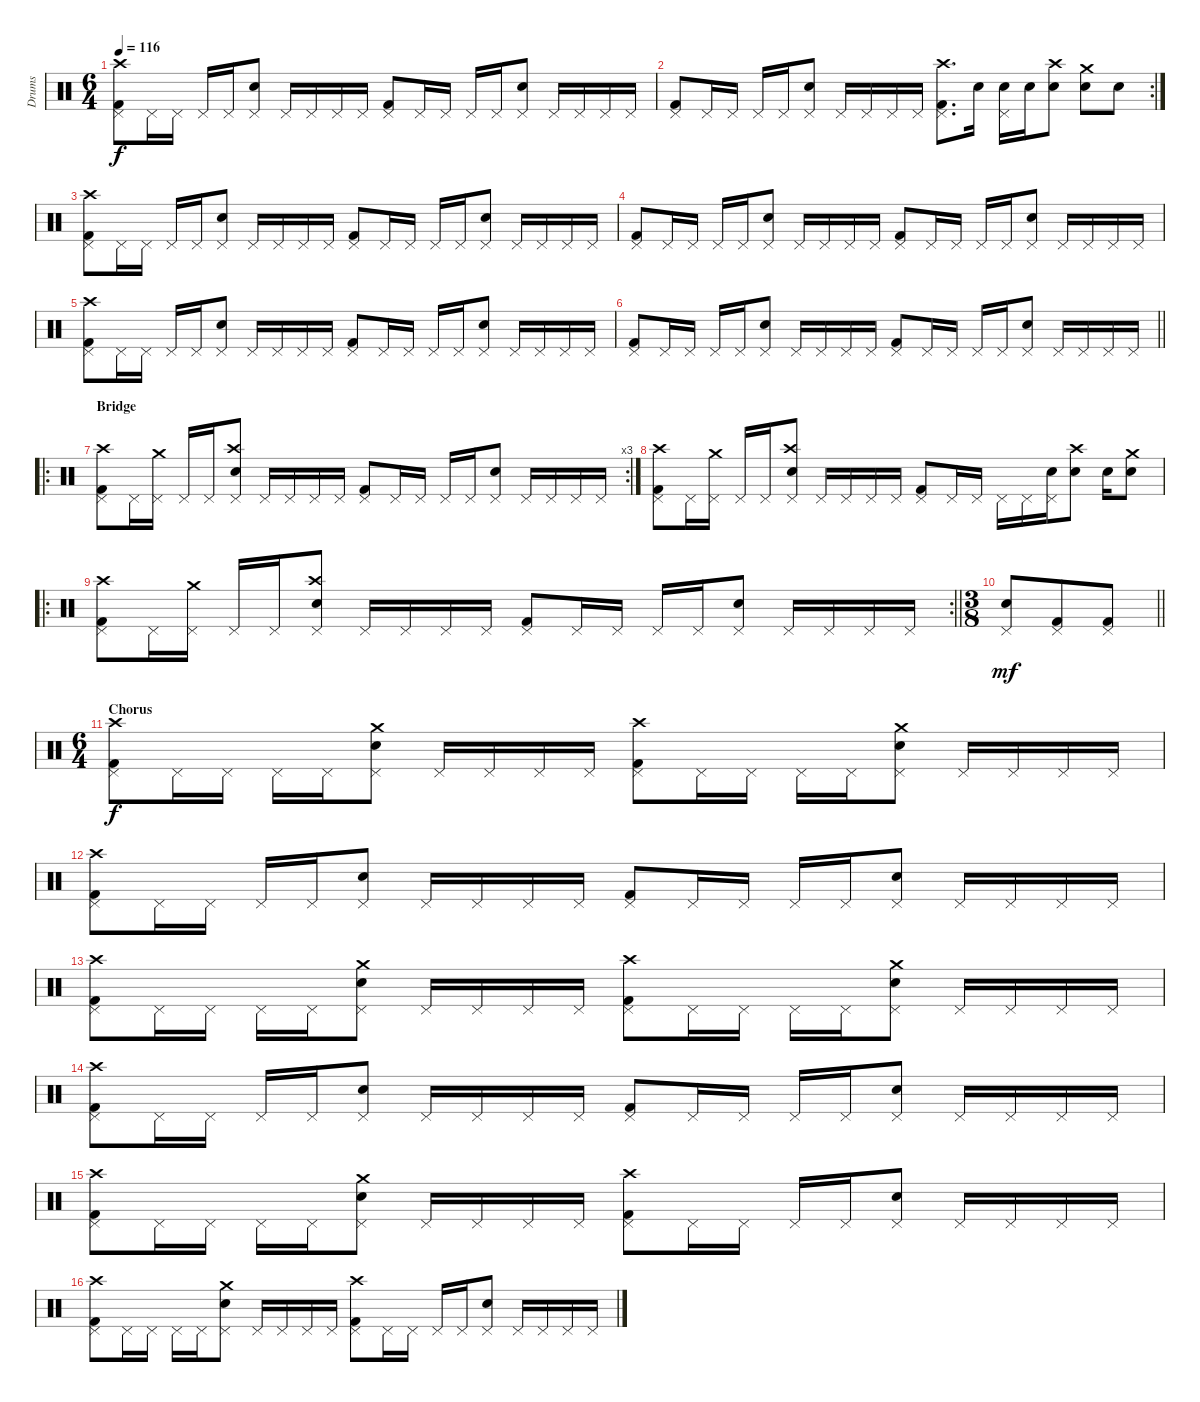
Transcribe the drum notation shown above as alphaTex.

\track ("Drums" "Drums") {instrument percussion}
\staff {score}
\articulation defaults
\ts (6 4)
\tempo 116
\clef neutral
\ks c
("Kick (hit) 2" "Pedal Hi-Hat (hit)" "Crash high (hit)").8{dy f} "Pedal Hi-Hat (hit)".16 "Pedal Hi-Hat (hit)".16 "Pedal Hi-Hat (hit)".16 "Pedal Hi-Hat (hit)".16 ("Snare (hit) 2" "Pedal Hi-Hat (hit)").8 "Pedal Hi-Hat (hit)".16 "Pedal Hi-Hat (hit)".16 "Pedal Hi-Hat (hit)".16 "Pedal Hi-Hat (hit)".16 ("Kick (hit) 2" "Pedal Hi-Hat (hit)").8 "Pedal Hi-Hat (hit)".16 "Pedal Hi-Hat (hit)".16 "Pedal Hi-Hat (hit)".16 "Pedal Hi-Hat (hit)".16 ("Snare (hit) 2" "Pedal Hi-Hat (hit)").8 "Pedal Hi-Hat (hit)".16 "Pedal Hi-Hat (hit)".16 "Pedal Hi-Hat (hit)".16 "Pedal Hi-Hat (hit)".16 |
\rc 2
("Kick (hit) 2" "Pedal Hi-Hat (hit)").8 "Pedal Hi-Hat (hit)".16 "Pedal Hi-Hat (hit)".16 "Pedal Hi-Hat (hit)".16 "Pedal Hi-Hat (hit)".16 ("Snare (hit) 2" "Pedal Hi-Hat (hit)").8 "Pedal Hi-Hat (hit)".16 "Pedal Hi-Hat (hit)".16 "Pedal Hi-Hat (hit)".16 "Pedal Hi-Hat (hit)".16 ("Kick (hit) 2" "Pedal Hi-Hat (hit)" "Crash high (hit)").8{d} "Snare (hit) 2".16 ("Snare (hit) 2" "Pedal Hi-Hat (hit)").16 "Snare (hit) 2".16 ("Snare (hit) 2" "Crash high (hit)").8 ("Snare (hit) 2" "Crash medium (hit)").8 "Snare (hit) 2".8 |
("Kick (hit) 2" "Pedal Hi-Hat (hit)" "Crash high (hit)").8 "Pedal Hi-Hat (hit)".16 "Pedal Hi-Hat (hit)".16 "Pedal Hi-Hat (hit)".16 "Pedal Hi-Hat (hit)".16 ("Snare (hit) 2" "Pedal Hi-Hat (hit)").8 "Pedal Hi-Hat (hit)".16 "Pedal Hi-Hat (hit)".16 "Pedal Hi-Hat (hit)".16 "Pedal Hi-Hat (hit)".16 ("Kick (hit) 2" "Pedal Hi-Hat (hit)").8 "Pedal Hi-Hat (hit)".16 "Pedal Hi-Hat (hit)".16 "Pedal Hi-Hat (hit)".16 "Pedal Hi-Hat (hit)".16 ("Snare (hit) 2" "Pedal Hi-Hat (hit)").8 "Pedal Hi-Hat (hit)".16 "Pedal Hi-Hat (hit)".16 "Pedal Hi-Hat (hit)".16 "Pedal Hi-Hat (hit)".16 |
("Kick (hit) 2" "Pedal Hi-Hat (hit)").8 "Pedal Hi-Hat (hit)".16 "Pedal Hi-Hat (hit)".16 "Pedal Hi-Hat (hit)".16 "Pedal Hi-Hat (hit)".16 ("Snare (hit) 2" "Pedal Hi-Hat (hit)").8 "Pedal Hi-Hat (hit)".16 "Pedal Hi-Hat (hit)".16 "Pedal Hi-Hat (hit)".16 "Pedal Hi-Hat (hit)".16 ("Kick (hit) 2" "Pedal Hi-Hat (hit)").8 "Pedal Hi-Hat (hit)".16 "Pedal Hi-Hat (hit)".16 "Pedal Hi-Hat (hit)".16 "Pedal Hi-Hat (hit)".16 ("Snare (hit) 2" "Pedal Hi-Hat (hit)").8 "Pedal Hi-Hat (hit)".16 "Pedal Hi-Hat (hit)".16 "Pedal Hi-Hat (hit)".16 "Pedal Hi-Hat (hit)".16 |
("Kick (hit) 2" "Pedal Hi-Hat (hit)" "Crash high (hit)").8 "Pedal Hi-Hat (hit)".16 "Pedal Hi-Hat (hit)".16 "Pedal Hi-Hat (hit)".16 "Pedal Hi-Hat (hit)".16 ("Snare (hit) 2" "Pedal Hi-Hat (hit)").8 "Pedal Hi-Hat (hit)".16 "Pedal Hi-Hat (hit)".16 "Pedal Hi-Hat (hit)".16 "Pedal Hi-Hat (hit)".16 ("Kick (hit) 2" "Pedal Hi-Hat (hit)").8 "Pedal Hi-Hat (hit)".16 "Pedal Hi-Hat (hit)".16 "Pedal Hi-Hat (hit)".16 "Pedal Hi-Hat (hit)".16 ("Snare (hit) 2" "Pedal Hi-Hat (hit)").8 "Pedal Hi-Hat (hit)".16 "Pedal Hi-Hat (hit)".16 "Pedal Hi-Hat (hit)".16 "Pedal Hi-Hat (hit)".16 |
\barLineRight lightlight
("Kick (hit) 2" "Pedal Hi-Hat (hit)").8 "Pedal Hi-Hat (hit)".16 "Pedal Hi-Hat (hit)".16 "Pedal Hi-Hat (hit)".16 "Pedal Hi-Hat (hit)".16 ("Snare (hit) 2" "Pedal Hi-Hat (hit)").8 "Pedal Hi-Hat (hit)".16 "Pedal Hi-Hat (hit)".16 "Pedal Hi-Hat (hit)".16 "Pedal Hi-Hat (hit)".16 ("Kick (hit) 2" "Pedal Hi-Hat (hit)").8 "Pedal Hi-Hat (hit)".16 "Pedal Hi-Hat (hit)".16 "Pedal Hi-Hat (hit)".16 "Pedal Hi-Hat (hit)".16 ("Snare (hit) 2" "Pedal Hi-Hat (hit)").8 "Pedal Hi-Hat (hit)".16 "Pedal Hi-Hat (hit)".16 "Pedal Hi-Hat (hit)".16 "Pedal Hi-Hat (hit)".16 |
\ro
\rc 3
\section ("" "Bridge")
("Kick (hit) 2" "Pedal Hi-Hat (hit)" "Crash high (hit)").8 "Pedal Hi-Hat (hit)".16 ("Pedal Hi-Hat (hit)" "Crash medium (hit)").16 "Pedal Hi-Hat (hit)".16 "Pedal Hi-Hat (hit)".16 ("Snare (hit) 2" "Pedal Hi-Hat (hit)" "Crash high (hit)").8 "Pedal Hi-Hat (hit)".16 "Pedal Hi-Hat (hit)".16 "Pedal Hi-Hat (hit)".16 "Pedal Hi-Hat (hit)".16 ("Kick (hit) 2" "Pedal Hi-Hat (hit)").8 "Pedal Hi-Hat (hit)".16 "Pedal Hi-Hat (hit)".16 "Pedal Hi-Hat (hit)".16 "Pedal Hi-Hat (hit)".16 ("Snare (hit) 2" "Pedal Hi-Hat (hit)").8 "Pedal Hi-Hat (hit)".16 "Pedal Hi-Hat (hit)".16 "Pedal Hi-Hat (hit)".16 "Pedal Hi-Hat (hit)".16 |
("Kick (hit) 2" "Pedal Hi-Hat (hit)" "Crash high (hit)").8 "Pedal Hi-Hat (hit)".16 ("Pedal Hi-Hat (hit)" "Crash medium (hit)").16 "Pedal Hi-Hat (hit)".16 "Pedal Hi-Hat (hit)".16 ("Snare (hit) 2" "Pedal Hi-Hat (hit)" "Crash high (hit)").8 "Pedal Hi-Hat (hit)".16 "Pedal Hi-Hat (hit)".16 "Pedal Hi-Hat (hit)".16 "Pedal Hi-Hat (hit)".16 ("Kick (hit) 2" "Pedal Hi-Hat (hit)").8 "Pedal Hi-Hat (hit)".16 "Pedal Hi-Hat (hit)".16 "Pedal Hi-Hat (hit)".16 "Pedal Hi-Hat (hit)".16 ("Snare (hit) 2" "Pedal Hi-Hat (hit)").16 ("Snare (hit) 2" "Crash high (hit)").8 "Snare (hit) 2".16 ("Snare (hit) 2" "Crash medium (hit)").8 |
\ro
\rc 2
\barLineRight lightlight
("Kick (hit) 2" "Pedal Hi-Hat (hit)" "Crash high (hit)").8 "Pedal Hi-Hat (hit)".16 ("Pedal Hi-Hat (hit)" "Crash medium (hit)").16 "Pedal Hi-Hat (hit)".16 "Pedal Hi-Hat (hit)".16 ("Snare (hit) 2" "Pedal Hi-Hat (hit)" "Crash high (hit)").8 "Pedal Hi-Hat (hit)".16 "Pedal Hi-Hat (hit)".16 "Pedal Hi-Hat (hit)".16 "Pedal Hi-Hat (hit)".16 ("Kick (hit) 2" "Pedal Hi-Hat (hit)").8 "Pedal Hi-Hat (hit)".16 "Pedal Hi-Hat (hit)".16 "Pedal Hi-Hat (hit)".16 "Pedal Hi-Hat (hit)".16 ("Snare (hit) 2" "Pedal Hi-Hat (hit)").8 "Pedal Hi-Hat (hit)".16 "Pedal Hi-Hat (hit)".16 "Pedal Hi-Hat (hit)".16 "Pedal Hi-Hat (hit)".16 |
\ts (3 8)
\barLineRight lightlight
("Pedal Hi-Hat (hit)" "Snare (hit) 2").8{dy mf} ("Pedal Hi-Hat (hit)" "Kick (hit) 2").8 ("Pedal Hi-Hat (hit)" "Kick (hit) 2").8 |
\ts (6 4)
\section ("" "Chorus")
("Kick (hit) 2" "Pedal Hi-Hat (hit)" "Crash high (hit)").8{dy f} "Pedal Hi-Hat (hit)".16 "Pedal Hi-Hat (hit)".16 "Pedal Hi-Hat (hit)".16 "Pedal Hi-Hat (hit)".16 ("Snare (hit) 2" "Pedal Hi-Hat (hit)" "Crash medium (hit)").8 "Pedal Hi-Hat (hit)".16 "Pedal Hi-Hat (hit)".16 "Pedal Hi-Hat (hit)".16 "Pedal Hi-Hat (hit)".16 ("Kick (hit) 2" "Pedal Hi-Hat (hit)" "Crash high (hit)").8 "Pedal Hi-Hat (hit)".16 "Pedal Hi-Hat (hit)".16 "Pedal Hi-Hat (hit)".16 "Pedal Hi-Hat (hit)".16 ("Snare (hit) 2" "Pedal Hi-Hat (hit)" "Crash medium (hit)").8 "Pedal Hi-Hat (hit)".16 "Pedal Hi-Hat (hit)".16 "Pedal Hi-Hat (hit)".16 "Pedal Hi-Hat (hit)".16 |
("Kick (hit) 2" "Pedal Hi-Hat (hit)" "Crash high (hit)").8 "Pedal Hi-Hat (hit)".16 "Pedal Hi-Hat (hit)".16 "Pedal Hi-Hat (hit)".16 "Pedal Hi-Hat (hit)".16 ("Snare (hit) 2" "Pedal Hi-Hat (hit)").8 "Pedal Hi-Hat (hit)".16 "Pedal Hi-Hat (hit)".16 "Pedal Hi-Hat (hit)".16 "Pedal Hi-Hat (hit)".16 ("Kick (hit) 2" "Pedal Hi-Hat (hit)").8 "Pedal Hi-Hat (hit)".16 "Pedal Hi-Hat (hit)".16 "Pedal Hi-Hat (hit)".16 "Pedal Hi-Hat (hit)".16 ("Snare (hit) 2" "Pedal Hi-Hat (hit)").8 "Pedal Hi-Hat (hit)".16 "Pedal Hi-Hat (hit)".16 "Pedal Hi-Hat (hit)".16 "Pedal Hi-Hat (hit)".16 |
("Kick (hit) 2" "Pedal Hi-Hat (hit)" "Crash high (hit)").8 "Pedal Hi-Hat (hit)".16 "Pedal Hi-Hat (hit)".16 "Pedal Hi-Hat (hit)".16 "Pedal Hi-Hat (hit)".16 ("Snare (hit) 2" "Pedal Hi-Hat (hit)" "Crash medium (hit)").8 "Pedal Hi-Hat (hit)".16 "Pedal Hi-Hat (hit)".16 "Pedal Hi-Hat (hit)".16 "Pedal Hi-Hat (hit)".16 ("Kick (hit) 2" "Pedal Hi-Hat (hit)" "Crash high (hit)").8 "Pedal Hi-Hat (hit)".16 "Pedal Hi-Hat (hit)".16 "Pedal Hi-Hat (hit)".16 "Pedal Hi-Hat (hit)".16 ("Snare (hit) 2" "Pedal Hi-Hat (hit)" "Crash medium (hit)").8 "Pedal Hi-Hat (hit)".16 "Pedal Hi-Hat (hit)".16 "Pedal Hi-Hat (hit)".16 "Pedal Hi-Hat (hit)".16 |
("Kick (hit) 2" "Pedal Hi-Hat (hit)" "Crash high (hit)").8 "Pedal Hi-Hat (hit)".16 "Pedal Hi-Hat (hit)".16 "Pedal Hi-Hat (hit)".16 "Pedal Hi-Hat (hit)".16 ("Snare (hit) 2" "Pedal Hi-Hat (hit)").8 "Pedal Hi-Hat (hit)".16 "Pedal Hi-Hat (hit)".16 "Pedal Hi-Hat (hit)".16 "Pedal Hi-Hat (hit)".16 ("Kick (hit) 2" "Pedal Hi-Hat (hit)").8 "Pedal Hi-Hat (hit)".16 "Pedal Hi-Hat (hit)".16 "Pedal Hi-Hat (hit)".16 "Pedal Hi-Hat (hit)".16 ("Snare (hit) 2" "Pedal Hi-Hat (hit)").8 "Pedal Hi-Hat (hit)".16 "Pedal Hi-Hat (hit)".16 "Pedal Hi-Hat (hit)".16 "Pedal Hi-Hat (hit)".16 |
("Kick (hit) 2" "Pedal Hi-Hat (hit)" "Crash high (hit)").8 "Pedal Hi-Hat (hit)".16 "Pedal Hi-Hat (hit)".16 "Pedal Hi-Hat (hit)".16 "Pedal Hi-Hat (hit)".16 ("Snare (hit) 2" "Pedal Hi-Hat (hit)" "Crash medium (hit)").8 "Pedal Hi-Hat (hit)".16 "Pedal Hi-Hat (hit)".16 "Pedal Hi-Hat (hit)".16 "Pedal Hi-Hat (hit)".16 ("Kick (hit) 2" "Pedal Hi-Hat (hit)" "Crash high (hit)").8 "Pedal Hi-Hat (hit)".16 "Pedal Hi-Hat (hit)".16 "Pedal Hi-Hat (hit)".16 "Pedal Hi-Hat (hit)".16 ("Snare (hit) 2" "Pedal Hi-Hat (hit)").8 "Pedal Hi-Hat (hit)".16 "Pedal Hi-Hat (hit)".16 "Pedal Hi-Hat (hit)".16 "Pedal Hi-Hat (hit)".16 |
("Kick (hit) 2" "Pedal Hi-Hat (hit)" "Crash high (hit)").8 "Pedal Hi-Hat (hit)".16 "Pedal Hi-Hat (hit)".16 "Pedal Hi-Hat (hit)".16 "Pedal Hi-Hat (hit)".16 ("Snare (hit) 2" "Pedal Hi-Hat (hit)" "Crash medium (hit)").8 "Pedal Hi-Hat (hit)".16 "Pedal Hi-Hat (hit)".16 "Pedal Hi-Hat (hit)".16 "Pedal Hi-Hat (hit)".16 ("Kick (hit) 2" "Pedal Hi-Hat (hit)" "Crash high (hit)").8 "Pedal Hi-Hat (hit)".16 "Pedal Hi-Hat (hit)".16 "Pedal Hi-Hat (hit)".16 "Pedal Hi-Hat (hit)".16 ("Snare (hit) 2" "Pedal Hi-Hat (hit)").8 "Pedal Hi-Hat (hit)".16 "Pedal Hi-Hat (hit)".16 "Pedal Hi-Hat (hit)".16 "Pedal Hi-Hat (hit)".16
